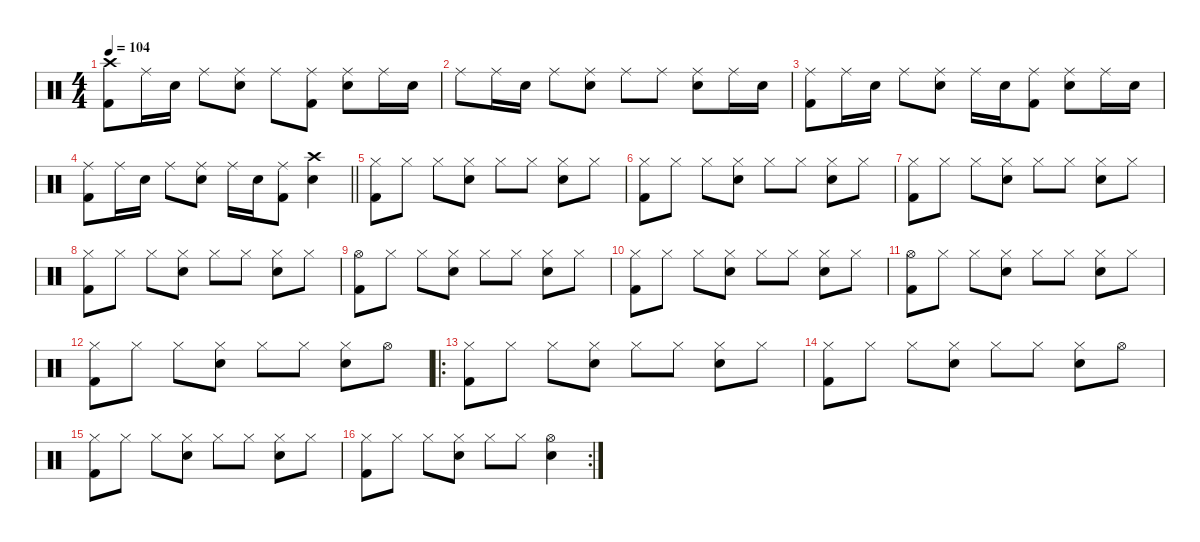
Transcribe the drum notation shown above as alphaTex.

\defaultSystemsLayout 4
\hideDynamics
\bracketExtendMode nobrackets
\singleTrackTrackNamePolicy hidden
\multiTrackTrackNamePolicy hidden
\firstSystemTrackNameMode fullname
\firstSystemTrackNameOrientation horizontal
\otherSystemsTrackNameOrientation horizontal
\track ("Drums" "drm.") {instrument percussion}
\staff {score}
\articulation defaults
\ts (4 4)
\tempo 104
\clef neutral
\ks c
("Crash high (hit)" "Kick (hit) 2").8{dy ff beam Down} "Ride (middle)".16{beam Down} "Snare (hit) 2".16{dy mf beam Down} "Ride (middle)".8{dy ff beam Down} ("Ride (middle)" "Snare (hit) 2").8{beam Down} "Ride (middle)".8{beam Down} ("Ride (middle)" "Kick (hit) 2").8{beam Down} ("Ride (middle)" "Snare (hit) 2").8{beam Down} "Ride (middle)".16{beam Down} "Snare (hit) 2".16{dy mf beam Down} |
"Ride (middle)".8{dy ff beam Down} "Ride (middle)".16{beam Down} "Snare (hit) 2".16{dy mf beam Down} "Ride (middle)".8{dy ff beam Down} ("Ride (middle)" "Snare (hit) 2").8{beam Down} "Ride (middle)".8{beam Down} "Ride (middle)".8{beam Down} ("Ride (middle)" "Snare (hit) 2").8{beam Down} "Ride (middle)".16{beam Down} "Snare (hit) 2".16{dy mf beam Down} |
("Ride (middle)" "Kick (hit) 2").8{dy ff beam Down} "Ride (middle)".16{beam Down} "Snare (hit) 2".16{dy f beam Down} "Ride (middle)".8{dy ff beam Down} ("Ride (middle)" "Snare (hit) 2").8{beam Down} "Ride (middle)".16{beam Down} "Snare (hit) 2".16{dy mf beam Down} ("Ride (middle)" "Kick (hit) 2").8{dy ff beam Down} ("Ride (middle)" "Snare (hit) 2").8{beam Down} "Ride (middle)".16{beam Down} "Snare (hit) 2".16{dy mf beam Down} |
\barLineRight lightlight
("Ride (middle)" "Kick (hit) 2").8{dy ff beam Down} "Ride (middle)".16{beam Down} "Snare (hit) 2".16{dy mf beam Down} "Ride (middle)".8{dy ff beam Down} ("Ride (middle)" "Snare (hit) 2").8{beam Down} "Ride (middle)".16{beam Down} "Snare (hit) 2".16{dy mf beam Down} ("Ride (middle)" "Kick (hit) 2").8{dy ff beam Down} ("Crash high (hit)" "Snare (hit) 2").4{beam Down} |
("Hi-Hat (closed)" "Kick (hit) 2").8{dy f beam Down} "Hi-Hat (closed)".8{beam Down} "Hi-Hat (closed)".8{beam Down} ("Hi-Hat (closed)" "Snare (hit) 2").8{beam Down} "Hi-Hat (closed)".8{beam Down} "Hi-Hat (closed)".8{beam Down} ("Hi-Hat (closed)" "Snare (hit) 2").8{beam Down} "Hi-Hat (closed)".8{beam Down} |
("Hi-Hat (closed)" "Kick (hit) 2").8{beam Down} "Hi-Hat (closed)".8{beam Down} "Hi-Hat (closed)".8{beam Down} ("Hi-Hat (closed)" "Snare (hit) 2").8{beam Down} "Hi-Hat (closed)".8{beam Down} "Hi-Hat (closed)".8{beam Down} ("Hi-Hat (closed)" "Snare (hit) 2").8{beam Down} "Hi-Hat (closed)".8{beam Down} |
("Hi-Hat (closed)" "Kick (hit) 2").8{beam Down} "Hi-Hat (closed)".8{beam Down} "Hi-Hat (closed)".8{beam Down} ("Hi-Hat (closed)" "Snare (hit) 2").8{beam Down} "Hi-Hat (closed)".8{beam Down} "Hi-Hat (closed)".8{beam Down} ("Hi-Hat (closed)" "Snare (hit) 2").8{beam Down} "Hi-Hat (closed)".8{beam Down} |
("Hi-Hat (closed)" "Kick (hit) 2").8{beam Down} "Hi-Hat (closed)".8{beam Down} "Hi-Hat (closed)".8{beam Down} ("Hi-Hat (closed)" "Snare (hit) 2").8{beam Down} "Hi-Hat (closed)".8{beam Down} "Hi-Hat (closed)".8{beam Down} ("Hi-Hat (closed)" "Snare (hit) 2").8{beam Down} "Hi-Hat (closed)".8{beam Down} |
("Hi-Hat (open)" "Kick (hit) 2").8{beam Down} "Hi-Hat (closed)".8{beam Down} "Hi-Hat (closed)".8{beam Down} ("Hi-Hat (closed)" "Snare (hit) 2").8{beam Down} "Hi-Hat (closed)".8{beam Down} "Hi-Hat (closed)".8{beam Down} ("Hi-Hat (closed)" "Snare (hit) 2").8{beam Down} "Hi-Hat (closed)".8{beam Down} |
("Hi-Hat (closed)" "Kick (hit) 2").8{beam Down} "Hi-Hat (closed)".8{beam Down} "Hi-Hat (closed)".8{beam Down} ("Hi-Hat (closed)" "Snare (hit) 2").8{beam Down} "Hi-Hat (closed)".8{beam Down} "Hi-Hat (closed)".8{beam Down} ("Hi-Hat (closed)" "Snare (hit) 2").8{beam Down} "Hi-Hat (closed)".8{beam Down} |
("Hi-Hat (open)" "Kick (hit) 2").8{beam Down} "Hi-Hat (closed)".8{beam Down} "Hi-Hat (closed)".8{dy ff beam Down} ("Hi-Hat (closed)" "Snare (hit) 2").8{dy f beam Down} "Hi-Hat (closed)".8{beam Down} "Hi-Hat (closed)".8{beam Down} ("Hi-Hat (closed)" "Snare (hit) 2").8{beam Down} "Hi-Hat (closed)".8{beam Down} |
("Hi-Hat (closed)" "Kick (hit) 2").8{beam Down} "Hi-Hat (closed)".8{beam Down} "Hi-Hat (closed)".8{dy ff beam Down} ("Hi-Hat (closed)" "Snare (hit) 2").8{dy f beam Down} "Hi-Hat (closed)".8{beam Down} "Hi-Hat (closed)".8{beam Down} ("Hi-Hat (closed)" "Snare (hit) 2").8{beam Down} "Hi-Hat (open)".8{dy ff beam Down} |
\ro
("Hi-Hat (closed)" "Kick (hit) 2").8{dy f beam Down} "Hi-Hat (closed)".8{beam Down} "Hi-Hat (closed)".8{beam Down} ("Hi-Hat (closed)" "Snare (hit) 2").8{beam Down} "Hi-Hat (closed)".8{beam Down} "Hi-Hat (closed)".8{beam Down} ("Hi-Hat (closed)" "Snare (hit) 2").8{beam Down} "Hi-Hat (closed)".8{beam Down} |
("Hi-Hat (closed)" "Kick (hit) 2").8{beam Down} "Hi-Hat (closed)".8{beam Down} "Hi-Hat (closed)".8{beam Down} ("Hi-Hat (closed)" "Snare (hit) 2").8{beam Down} "Hi-Hat (closed)".8{beam Down} "Hi-Hat (closed)".8{beam Down} ("Hi-Hat (closed)" "Snare (hit) 2").8{beam Down} "Hi-Hat (open)".8{beam Down} |
("Hi-Hat (closed)" "Kick (hit) 2").8{beam Down} "Hi-Hat (closed)".8{beam Down} "Hi-Hat (closed)".8{beam Down} ("Hi-Hat (closed)" "Snare (hit) 2").8{beam Down} "Hi-Hat (closed)".8{beam Down} "Hi-Hat (closed)".8{beam Down} ("Hi-Hat (closed)" "Snare (hit) 2").8{beam Down} "Hi-Hat (closed)".8{beam Down} |
\rc 2
("Hi-Hat (closed)" "Kick (hit) 2").8{beam Down} "Hi-Hat (closed)".8{beam Down} "Hi-Hat (closed)".8{beam Down} ("Hi-Hat (closed)" "Snare (hit) 2").8{beam Down} "Hi-Hat (closed)".8{beam Down} "Hi-Hat (closed)".8{beam Down} ("Hi-Hat (open)" "Snare (hit) 2").4{beam Down}
